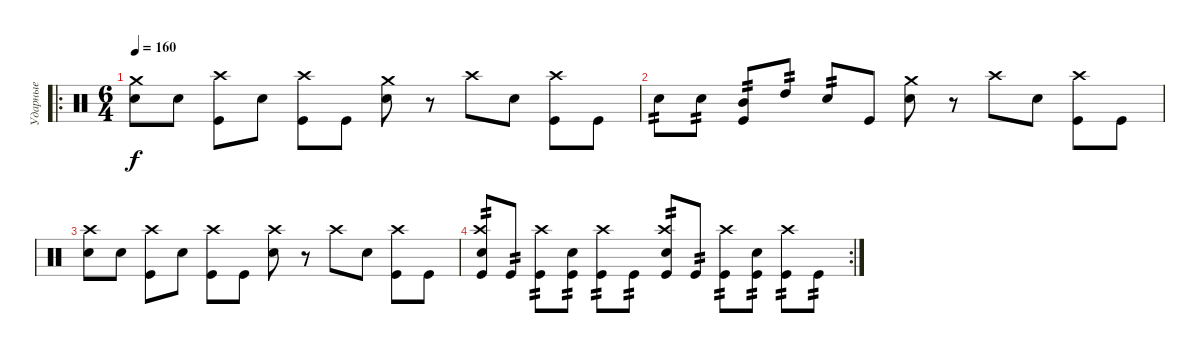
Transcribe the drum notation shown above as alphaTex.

\track ("Ударные" "Ударные") {instrument percussion}
\staff {score}
\articulation defaults
\ro
\ts (6 4)
\tempo 160
\clef neutral
\ks c
("Crash medium (hit)" "Snare (hit) 2").8{dy f} "Snare (hit) 2".8 ("Crash high (hit)" "Kick (hit)").8 "Snare (hit) 2".8 ("Crash high (hit)" "Kick (hit)").8 "Kick (hit)".8 ("Crash medium (hit)" "Snare (hit) 2").8 r.8 "Crash high (hit)".8 "Snare (hit) 2".8 ("Crash high (hit)" "Kick (hit)").8 "Kick (hit)".8 |
"Snare (hit) 2".8{tp 2} "Snare (hit) 2".8{tp 2} ("Mid Tom (hit)" "Kick (hit)").8{tp 2} "High Tom (hit)".8{tp 2} "Snare (hit) 2".8{tp 2} "Kick (hit)".8 ("Crash medium (hit)" "Snare (hit) 2").8 r.8 "Crash high (hit)".8 "Snare (hit) 2".8 ("Crash high (hit)" "Kick (hit)").8 "Kick (hit)".8 |
("Crash high (hit)" "Snare (hit) 2").8 "Snare (hit) 2".8 ("Crash high (hit)" "Kick (hit)").8 "Snare (hit) 2".8 ("Crash high (hit)" "Kick (hit)").8 "Kick (hit)".8 ("Crash high (hit)" "Snare (hit) 2").8 r.8 "Crash high (hit)".8 "Snare (hit) 2".8 ("Crash high (hit)" "Kick (hit)").8 "Kick (hit)".8 |
\rc 2
("Crash high (hit)" "Snare (hit) 2" "Kick (hit)").8{tp 2} "Kick (hit)".8{tp 2} ("Crash high (hit)" "Kick (hit)").8{tp 2} ("Snare (hit) 2" "Kick (hit)").8{tp 2} ("Crash high (hit)" "Kick (hit)").8{tp 2} "Kick (hit)".8{tp 2} ("Crash high (hit)" "Snare (hit) 2" "Kick (hit)").8{tp 2} "Kick (hit)".8{tp 2} ("Crash high (hit)" "Kick (hit)").8{tp 2} ("Snare (hit) 2" "Kick (hit)").8{tp 2} ("Crash high (hit)" "Kick (hit)").8{tp 2} "Kick (hit)".8{tp 2}
